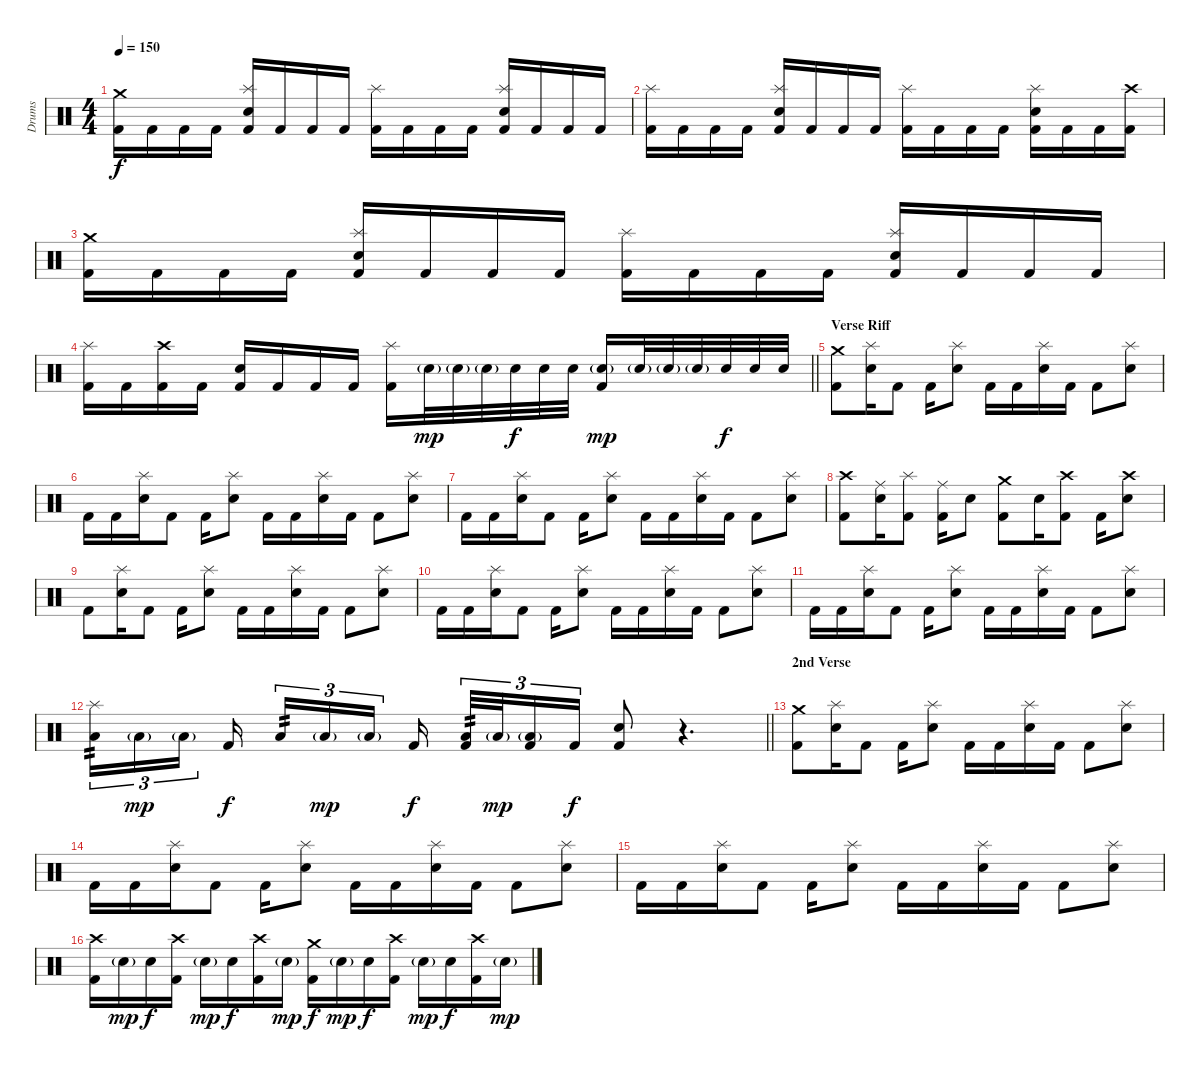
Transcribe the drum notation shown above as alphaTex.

\track ("Drums" "Drums") {instrument percussion}
\staff {score}
\articulation defaults
\ts (4 4)
\tempo 150
\clef neutral
\ks c
("Crash medium (hit)" "Kick (hit) 2").16{dy f} "Kick (hit) 2".16 "Kick (hit) 2".16 "Kick (hit) 2".16 ("Splash (hit)" "Electric Snare (hit)" "Kick (hit) 2").16 "Kick (hit) 2".16 "Kick (hit) 2".16 "Kick (hit) 2".16 ("Splash (hit)" "Kick (hit) 2").16 "Kick (hit) 2".16 "Kick (hit) 2".16 "Kick (hit) 2".16 ("Splash (hit)" "Electric Snare (hit)" "Kick (hit) 2").16 "Kick (hit) 2".16 "Kick (hit) 2".16 "Kick (hit) 2".16 |
("Splash (hit)" "Kick (hit) 2").16 "Kick (hit) 2".16 "Kick (hit) 2".16 "Kick (hit) 2".16 ("Splash (hit)" "Electric Snare (hit)" "Kick (hit) 2").16 "Kick (hit) 2".16 "Kick (hit) 2".16 "Kick (hit) 2".16 ("Splash (hit)" "Kick (hit) 2").16 "Kick (hit) 2".16 "Kick (hit) 2".16 "Kick (hit) 2".16 ("Splash (hit)" "Electric Snare (hit)" "Kick (hit) 2").16 "Kick (hit) 2".16 "Kick (hit) 2".16 ("Crash high (hit)" "Kick (hit) 2").16 |
("Crash medium (hit)" "Kick (hit) 2").16 "Kick (hit) 2".16 "Kick (hit) 2".16 "Kick (hit) 2".16 ("Splash (hit)" "Electric Snare (hit)" "Kick (hit) 2").16 "Kick (hit) 2".16 "Kick (hit) 2".16 "Kick (hit) 2".16 ("Splash (hit)" "Kick (hit) 2").16 "Kick (hit) 2".16 "Kick (hit) 2".16 "Kick (hit) 2".16 ("Splash (hit)" "Electric Snare (hit)" "Kick (hit) 2").16 "Kick (hit) 2".16 "Kick (hit) 2".16 "Kick (hit) 2".16 |
\barLineRight lightlight
("Splash (hit)" "Kick (hit) 2").16 "Kick (hit) 2".16 ("Crash high (hit)" "Kick (hit) 2").16 "Kick (hit) 2".16 ("Electric Snare (hit)" "Kick (hit) 2").16 "Kick (hit) 2".16 "Kick (hit) 2".16 "Kick (hit) 2".16 ("Splash (hit)" "Kick (hit) 2").16 "Electric Snare (hit)"{g}.32{dy mp} "Electric Snare (hit)"{g}.32 "Electric Snare (hit)"{g}.32 "Electric Snare (hit)".32{dy f} "Electric Snare (hit)".32 "Electric Snare (hit)".32 ("Electric Snare (hit)"{g} "Kick (hit) 2").16{dy mp} "Electric Snare (hit)"{g}.32 "Electric Snare (hit)"{g}.32 "Electric Snare (hit)"{g}.32 "Electric Snare (hit)".32{dy f} "Electric Snare (hit)".32 "Electric Snare (hit)".32 |
\section ("" "Verse Riff")
("Crash medium (hit)" "Kick (hit) 2").8 ("Splash (hit)" "Electric Snare (hit)").16 "Kick (hit) 2".8 "Kick (hit) 2".16 ("Splash (hit)" "Electric Snare (hit)").8 "Kick (hit) 2".16 "Kick (hit) 2".16 ("Splash (hit)" "Electric Snare (hit)").16 "Kick (hit) 2".16 "Kick (hit) 2".8 ("Splash (hit)" "Electric Snare (hit)").8 |
"Kick (hit) 2".16 "Kick (hit) 2".16 ("Splash (hit)" "Electric Snare (hit)").16 "Kick (hit) 2".8 "Kick (hit) 2".16 ("Splash (hit)" "Electric Snare (hit)").8 "Kick (hit) 2".16 "Kick (hit) 2".16 ("Splash (hit)" "Electric Snare (hit)").16 "Kick (hit) 2".16 "Kick (hit) 2".8 ("Splash (hit)" "Electric Snare (hit)").8 |
"Kick (hit) 2".16 "Kick (hit) 2".16 ("Splash (hit)" "Electric Snare (hit)").16 "Kick (hit) 2".8 "Kick (hit) 2".16 ("Splash (hit)" "Electric Snare (hit)").8 "Kick (hit) 2".16 "Kick (hit) 2".16 ("Splash (hit)" "Electric Snare (hit)").16 "Kick (hit) 2".16 "Kick (hit) 2".8 ("Splash (hit)" "Electric Snare (hit)").8 |
("Crash high (hit)" "Kick (hit) 2").8 ("Ride (middle)" "Electric Snare (hit)").16 ("Splash (hit)" "Kick (hit) 2").8 ("Ride (middle)" "Kick (hit) 2").16 "Electric Snare (hit)".8 ("Crash medium (hit)" "Kick (hit) 2").8 "Electric Snare (hit)".16 ("Crash high (hit)" "Kick (hit) 2").8 "Kick (hit) 2".16 ("Crash high (hit)" "Electric Snare (hit)").8 |
"Kick (hit) 2".8 ("Splash (hit)" "Electric Snare (hit)").16 "Kick (hit) 2".8 "Kick (hit) 2".16 ("Splash (hit)" "Electric Snare (hit)").8 "Kick (hit) 2".16 "Kick (hit) 2".16 ("Splash (hit)" "Electric Snare (hit)").16 "Kick (hit) 2".16 "Kick (hit) 2".8 ("Splash (hit)" "Electric Snare (hit)").8 |
"Kick (hit) 2".16 "Kick (hit) 2".16 ("Splash (hit)" "Electric Snare (hit)").16 "Kick (hit) 2".8 "Kick (hit) 2".16 ("Splash (hit)" "Electric Snare (hit)").8 "Kick (hit) 2".16 "Kick (hit) 2".16 ("Splash (hit)" "Electric Snare (hit)").16 "Kick (hit) 2".16 "Kick (hit) 2".8 ("Splash (hit)" "Electric Snare (hit)").8 |
"Kick (hit) 2".16 "Kick (hit) 2".16 ("Splash (hit)" "Electric Snare (hit)").16 "Kick (hit) 2".8 "Kick (hit) 2".16 ("Splash (hit)" "Electric Snare (hit)").8 "Kick (hit) 2".16 "Kick (hit) 2".16 ("Splash (hit)" "Electric Snare (hit)").16 "Kick (hit) 2".16 "Kick (hit) 2".8 ("Splash (hit)" "Electric Snare (hit)").8 |
\barLineRight lightlight
("Splash (hit)" "Low Floor Tom (hit)").16{tu (3 2) tp 2} "Low Floor Tom (hit)"{g}.16{tu (3 2) dy mp} "Low Floor Tom (hit)"{g}.16{tu (3 2) beam splitsecondary} "Kick (hit) 2".16{dy f beam splitsecondary} "Low Floor Tom (hit)".16{tu (3 2) tp 2} "Low Floor Tom (hit)"{g}.16{tu (3 2) dy mp} "Low Floor Tom (hit)"{g}.16{tu (3 2) beam splitsecondary} "Kick (hit) 2".16{dy f beam splitsecondary} ("Low Floor Tom (hit)" "Kick (hit) 2").32{tu (3 2) tp 2} "Low Floor Tom (hit)"{g}.32{tu (3 2) dy mp} ("Low Floor Tom (hit)"{g} "Kick (hit) 2").16{tu (3 2)} "Kick (hit) 2".16{tu (3 2) dy f} ("Electric Snare (hit)" "Kick (hit) 2").8 r.4{d} |
\section ("" "2nd Verse")
("Crash medium (hit)" "Kick (hit) 2").8 ("Splash (hit)" "Electric Snare (hit)").16 "Kick (hit) 2".8 "Kick (hit) 2".16 ("Splash (hit)" "Electric Snare (hit)").8 "Kick (hit) 2".16 "Kick (hit) 2".16 ("Splash (hit)" "Electric Snare (hit)").16 "Kick (hit) 2".16 "Kick (hit) 2".8 ("Splash (hit)" "Electric Snare (hit)").8 |
"Kick (hit) 2".16 "Kick (hit) 2".16 ("Splash (hit)" "Electric Snare (hit)").16 "Kick (hit) 2".8 "Kick (hit) 2".16 ("Splash (hit)" "Electric Snare (hit)").8 "Kick (hit) 2".16 "Kick (hit) 2".16 ("Splash (hit)" "Electric Snare (hit)").16 "Kick (hit) 2".16 "Kick (hit) 2".8 ("Splash (hit)" "Electric Snare (hit)").8 |
"Kick (hit) 2".16 "Kick (hit) 2".16 ("Splash (hit)" "Electric Snare (hit)").16 "Kick (hit) 2".8 "Kick (hit) 2".16 ("Splash (hit)" "Electric Snare (hit)").8 "Kick (hit) 2".16 "Kick (hit) 2".16 ("Splash (hit)" "Electric Snare (hit)").16 "Kick (hit) 2".16 "Kick (hit) 2".8 ("Splash (hit)" "Electric Snare (hit)").8 |
("Crash high (hit)" "Kick (hit) 2").16 "Electric Snare (hit)"{g}.16{dy mp} "Electric Snare (hit)".16{dy f} ("Crash high (hit)" "Kick (hit) 2").16 "Electric Snare (hit)"{g}.16{dy mp} "Electric Snare (hit)".16{dy f} ("Crash high (hit)" "Kick (hit) 2").16 "Electric Snare (hit)"{g}.16{dy mp} ("Crash medium (hit)" "Kick (hit) 2").16{dy f} "Electric Snare (hit)"{g}.16{dy mp} "Electric Snare (hit)".16{dy f} ("Crash high (hit)" "Kick (hit) 2").16 "Electric Snare (hit)"{g}.16{dy mp} "Electric Snare (hit)".16{dy f} ("Crash high (hit)" "Kick (hit) 2").16 "Electric Snare (hit)"{g}.16{dy mp}
